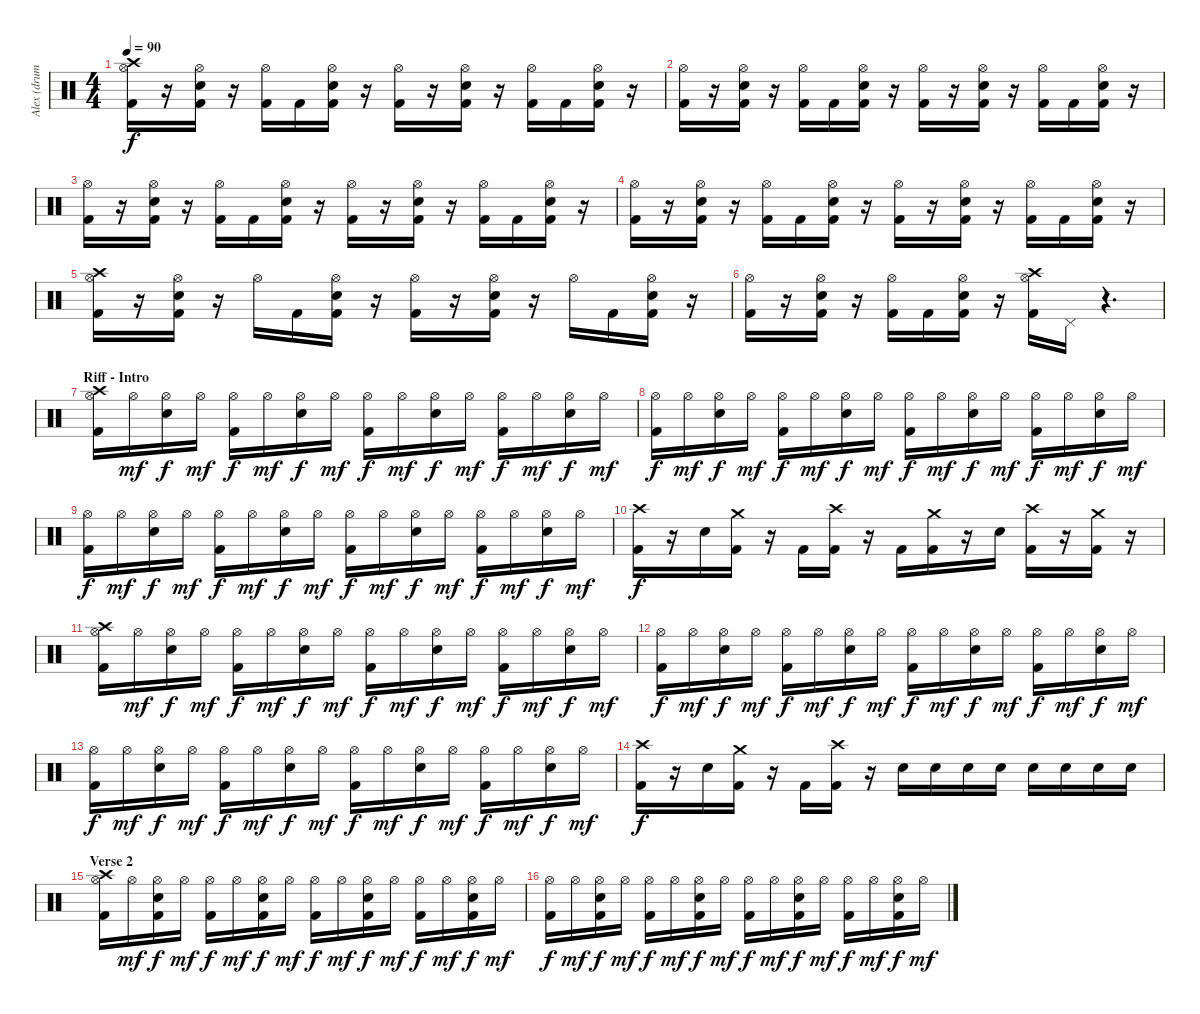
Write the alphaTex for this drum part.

\track ("Alex (drums)" "Alex (drum") {instrument percussion}
\staff {score}
\articulation defaults
\ts (4 4)
\tempo 90
\clef neutral
\ks c
("Hi-Hat (open)" "Kick (hit) 2" "Crash high (hit)").16{dy f} r.16 ("Hi-Hat (open)" "Snare (hit) 2" "Kick (hit) 2").16 r.16 ("Hi-Hat (open)" "Kick (hit) 2").16 "Kick (hit) 2".16 ("Hi-Hat (open)" "Snare (hit) 2" "Kick (hit) 2").16 r.16 ("Hi-Hat (open)" "Kick (hit) 2").16 r.16 ("Hi-Hat (open)" "Snare (hit) 2" "Kick (hit) 2").16 r.16 ("Hi-Hat (open)" "Kick (hit) 2").16 "Kick (hit) 2".16 ("Hi-Hat (open)" "Snare (hit) 2" "Kick (hit) 2").16 r.16 |
("Hi-Hat (open)" "Kick (hit) 2").16 r.16 ("Hi-Hat (open)" "Snare (hit) 2" "Kick (hit) 2").16 r.16 ("Hi-Hat (open)" "Kick (hit) 2").16 "Kick (hit) 2".16 ("Hi-Hat (open)" "Snare (hit) 2" "Kick (hit) 2").16 r.16 ("Hi-Hat (open)" "Kick (hit) 2").16 r.16 ("Hi-Hat (open)" "Snare (hit) 2" "Kick (hit) 2").16 r.16 ("Hi-Hat (open)" "Kick (hit) 2").16 "Kick (hit) 2".16 ("Hi-Hat (open)" "Snare (hit) 2" "Kick (hit) 2").16 r.16 |
("Hi-Hat (open)" "Kick (hit) 2").16 r.16 ("Hi-Hat (open)" "Snare (hit) 2" "Kick (hit) 2").16 r.16 ("Hi-Hat (open)" "Kick (hit) 2").16 "Kick (hit) 2".16 ("Hi-Hat (open)" "Snare (hit) 2" "Kick (hit) 2").16 r.16 ("Hi-Hat (open)" "Kick (hit) 2").16 r.16 ("Hi-Hat (open)" "Snare (hit) 2" "Kick (hit) 2").16 r.16 ("Hi-Hat (open)" "Kick (hit) 2").16 "Kick (hit) 2".16 ("Hi-Hat (open)" "Snare (hit) 2" "Kick (hit) 2").16 r.16 |
("Hi-Hat (open)" "Kick (hit) 2").16 r.16 ("Hi-Hat (open)" "Snare (hit) 2" "Kick (hit) 2").16 r.16 ("Hi-Hat (open)" "Kick (hit) 2").16 "Kick (hit) 2".16 ("Hi-Hat (open)" "Snare (hit) 2" "Kick (hit) 2").16 r.16 ("Hi-Hat (open)" "Kick (hit) 2").16 r.16 ("Hi-Hat (open)" "Snare (hit) 2" "Kick (hit) 2").16 r.16 ("Hi-Hat (open)" "Kick (hit) 2").16 "Kick (hit) 2".16 ("Hi-Hat (open)" "Snare (hit) 2" "Kick (hit) 2").16 r.16 |
("Hi-Hat (open)" "Kick (hit) 2" "Crash high (hit)").16 r.16 ("Hi-Hat (open)" "Snare (hit) 2" "Kick (hit) 2").16 r.16 "Hi-Hat (open)".16 "Kick (hit) 2".16 ("Hi-Hat (open)" "Snare (hit) 2" "Kick (hit) 2").16 r.16 ("Hi-Hat (open)" "Kick (hit) 2").16 r.16 ("Hi-Hat (open)" "Snare (hit) 2" "Kick (hit) 2").16 r.16 "Hi-Hat (open)".16 "Kick (hit) 2".16 ("Hi-Hat (open)" "Snare (hit) 2" "Kick (hit) 2").16 r.16 |
("Hi-Hat (open)" "Kick (hit) 2").16 r.16 ("Hi-Hat (open)" "Snare (hit) 2" "Kick (hit) 2").16 r.16 ("Hi-Hat (open)" "Kick (hit) 2").16 "Kick (hit) 2".16 ("Hi-Hat (open)" "Snare (hit) 2" "Kick (hit) 2").16 r.16 ("Hi-Hat (open)" "Kick (hit) 2" "Crash high (hit)").16 "Pedal Hi-Hat (hit)".16 r.4{d} |
\section ("" "Riff - Intro")
("Hi-Hat (open)" "Kick (hit) 2" "Crash high (hit)").16 "Hi-Hat (open)".16{dy mf} ("Hi-Hat (open)" "Snare (hit) 2").16{dy f} "Hi-Hat (open)".16{dy mf} ("Hi-Hat (open)" "Kick (hit) 2").16{dy f} "Hi-Hat (open)".16{dy mf} ("Hi-Hat (open)" "Snare (hit) 2").16{dy f} "Hi-Hat (open)".16{dy mf} ("Hi-Hat (open)" "Kick (hit) 2").16{dy f} "Hi-Hat (open)".16{dy mf} ("Hi-Hat (open)" "Snare (hit) 2").16{dy f} "Hi-Hat (open)".16{dy mf} ("Hi-Hat (open)" "Kick (hit) 2").16{dy f} "Hi-Hat (open)".16{dy mf} ("Hi-Hat (open)" "Snare (hit) 2").16{dy f} "Hi-Hat (open)".16{dy mf} |
("Hi-Hat (open)" "Kick (hit) 2").16{dy f} "Hi-Hat (open)".16{dy mf} ("Hi-Hat (open)" "Snare (hit) 2").16{dy f} "Hi-Hat (open)".16{dy mf} ("Hi-Hat (open)" "Kick (hit) 2").16{dy f} "Hi-Hat (open)".16{dy mf} ("Hi-Hat (open)" "Snare (hit) 2").16{dy f} "Hi-Hat (open)".16{dy mf} ("Hi-Hat (open)" "Kick (hit) 2").16{dy f} "Hi-Hat (open)".16{dy mf} ("Hi-Hat (open)" "Snare (hit) 2").16{dy f} "Hi-Hat (open)".16{dy mf} ("Hi-Hat (open)" "Kick (hit) 2").16{dy f} "Hi-Hat (open)".16{dy mf} ("Hi-Hat (open)" "Snare (hit) 2").16{dy f} "Hi-Hat (open)".16{dy mf} |
("Hi-Hat (open)" "Kick (hit) 2").16{dy f} "Hi-Hat (open)".16{dy mf} ("Hi-Hat (open)" "Snare (hit) 2").16{dy f} "Hi-Hat (open)".16{dy mf} ("Hi-Hat (open)" "Kick (hit) 2").16{dy f} "Hi-Hat (open)".16{dy mf} ("Hi-Hat (open)" "Snare (hit) 2").16{dy f} "Hi-Hat (open)".16{dy mf} ("Hi-Hat (open)" "Kick (hit) 2").16{dy f} "Hi-Hat (open)".16{dy mf} ("Hi-Hat (open)" "Snare (hit) 2").16{dy f} "Hi-Hat (open)".16{dy mf} ("Hi-Hat (open)" "Kick (hit) 2").16{dy f} "Hi-Hat (open)".16{dy mf} ("Hi-Hat (open)" "Snare (hit) 2").16{dy f} "Hi-Hat (open)".16{dy mf} |
("Kick (hit) 2" "Crash high (hit)").16{dy f} r.16 "Snare (hit) 2".16 ("Kick (hit) 2" "Crash medium (hit)").16 r.16 "Kick (hit) 2".16 ("Kick (hit) 2" "Crash high (hit)").16 r.16 "Kick (hit) 2".16 ("Kick (hit) 2" "Crash medium (hit)").16 r.16 "Snare (hit) 2".16 ("Kick (hit) 2" "Crash high (hit)").16 r.16 ("Kick (hit) 2" "Crash medium (hit)").16 r.16 |
("Hi-Hat (open)" "Kick (hit) 2" "Crash high (hit)").16 "Hi-Hat (open)".16{dy mf} ("Hi-Hat (open)" "Snare (hit) 2").16{dy f} "Hi-Hat (open)".16{dy mf} ("Hi-Hat (open)" "Kick (hit) 2").16{dy f} "Hi-Hat (open)".16{dy mf} ("Hi-Hat (open)" "Snare (hit) 2").16{dy f} "Hi-Hat (open)".16{dy mf} ("Hi-Hat (open)" "Kick (hit) 2").16{dy f} "Hi-Hat (open)".16{dy mf} ("Hi-Hat (open)" "Snare (hit) 2").16{dy f} "Hi-Hat (open)".16{dy mf} ("Hi-Hat (open)" "Kick (hit) 2").16{dy f} "Hi-Hat (open)".16{dy mf} ("Hi-Hat (open)" "Snare (hit) 2").16{dy f} "Hi-Hat (open)".16{dy mf} |
("Hi-Hat (open)" "Kick (hit) 2").16{dy f} "Hi-Hat (open)".16{dy mf} ("Hi-Hat (open)" "Snare (hit) 2").16{dy f} "Hi-Hat (open)".16{dy mf} ("Hi-Hat (open)" "Kick (hit) 2").16{dy f} "Hi-Hat (open)".16{dy mf} ("Hi-Hat (open)" "Snare (hit) 2").16{dy f} "Hi-Hat (open)".16{dy mf} ("Hi-Hat (open)" "Kick (hit) 2").16{dy f} "Hi-Hat (open)".16{dy mf} ("Hi-Hat (open)" "Snare (hit) 2").16{dy f} "Hi-Hat (open)".16{dy mf} ("Hi-Hat (open)" "Kick (hit) 2").16{dy f} "Hi-Hat (open)".16{dy mf} ("Hi-Hat (open)" "Snare (hit) 2").16{dy f} "Hi-Hat (open)".16{dy mf} |
("Hi-Hat (open)" "Kick (hit) 2").16{dy f} "Hi-Hat (open)".16{dy mf} ("Hi-Hat (open)" "Snare (hit) 2").16{dy f} "Hi-Hat (open)".16{dy mf} ("Hi-Hat (open)" "Kick (hit) 2").16{dy f} "Hi-Hat (open)".16{dy mf} ("Hi-Hat (open)" "Snare (hit) 2").16{dy f} "Hi-Hat (open)".16{dy mf} ("Hi-Hat (open)" "Kick (hit) 2").16{dy f} "Hi-Hat (open)".16{dy mf} ("Hi-Hat (open)" "Snare (hit) 2").16{dy f} "Hi-Hat (open)".16{dy mf} ("Hi-Hat (open)" "Kick (hit) 2").16{dy f} "Hi-Hat (open)".16{dy mf} ("Hi-Hat (open)" "Snare (hit) 2").16{dy f} "Hi-Hat (open)".16{dy mf} |
("Kick (hit) 2" "Crash high (hit)").16{dy f} r.16 "Snare (hit) 2".16 ("Kick (hit) 2" "Crash medium (hit)").16 r.16 "Kick (hit) 2".16 ("Kick (hit) 2" "Crash high (hit)").16 r.16 "Snare (hit) 2".16 "Snare (hit) 2".16 "Snare (hit) 2".16 "Snare (hit) 2".16 "Snare (hit) 2".16 "Snare (hit) 2".16 "Snare (hit) 2".16 "Snare (hit) 2".16 |
\section ("" "Verse 2")
("Hi-Hat (open)" "Kick (hit) 2" "Crash high (hit)").16 "Hi-Hat (open)".16{dy mf} ("Hi-Hat (open)" "Snare (hit) 2" "Kick (hit) 2").16{dy f} "Hi-Hat (open)".16{dy mf} ("Hi-Hat (open)" "Kick (hit) 2").16{dy f} "Hi-Hat (open)".16{dy mf} ("Hi-Hat (open)" "Snare (hit) 2" "Kick (hit) 2").16{dy f} "Hi-Hat (open)".16{dy mf} ("Hi-Hat (open)" "Kick (hit) 2").16{dy f} "Hi-Hat (open)".16{dy mf} ("Hi-Hat (open)" "Snare (hit) 2" "Kick (hit) 2").16{dy f} "Hi-Hat (open)".16{dy mf} ("Hi-Hat (open)" "Kick (hit) 2").16{dy f} "Hi-Hat (open)".16{dy mf} ("Hi-Hat (open)" "Snare (hit) 2" "Kick (hit) 2").16{dy f} "Hi-Hat (open)".16{dy mf} |
("Hi-Hat (open)" "Kick (hit) 2").16{dy f} "Hi-Hat (open)".16{dy mf} ("Hi-Hat (open)" "Snare (hit) 2" "Kick (hit) 2").16{dy f} "Hi-Hat (open)".16{dy mf} ("Hi-Hat (open)" "Kick (hit) 2").16{dy f} "Hi-Hat (open)".16{dy mf} ("Hi-Hat (open)" "Snare (hit) 2" "Kick (hit) 2").16{dy f} "Hi-Hat (open)".16{dy mf} ("Hi-Hat (open)" "Kick (hit) 2").16{dy f} "Hi-Hat (open)".16{dy mf} ("Hi-Hat (open)" "Snare (hit) 2" "Kick (hit) 2").16{dy f} "Hi-Hat (open)".16{dy mf} ("Hi-Hat (open)" "Kick (hit) 2").16{dy f} "Hi-Hat (open)".16{dy mf} ("Hi-Hat (open)" "Snare (hit) 2" "Kick (hit) 2").16{dy f} "Hi-Hat (open)".16{dy mf}
